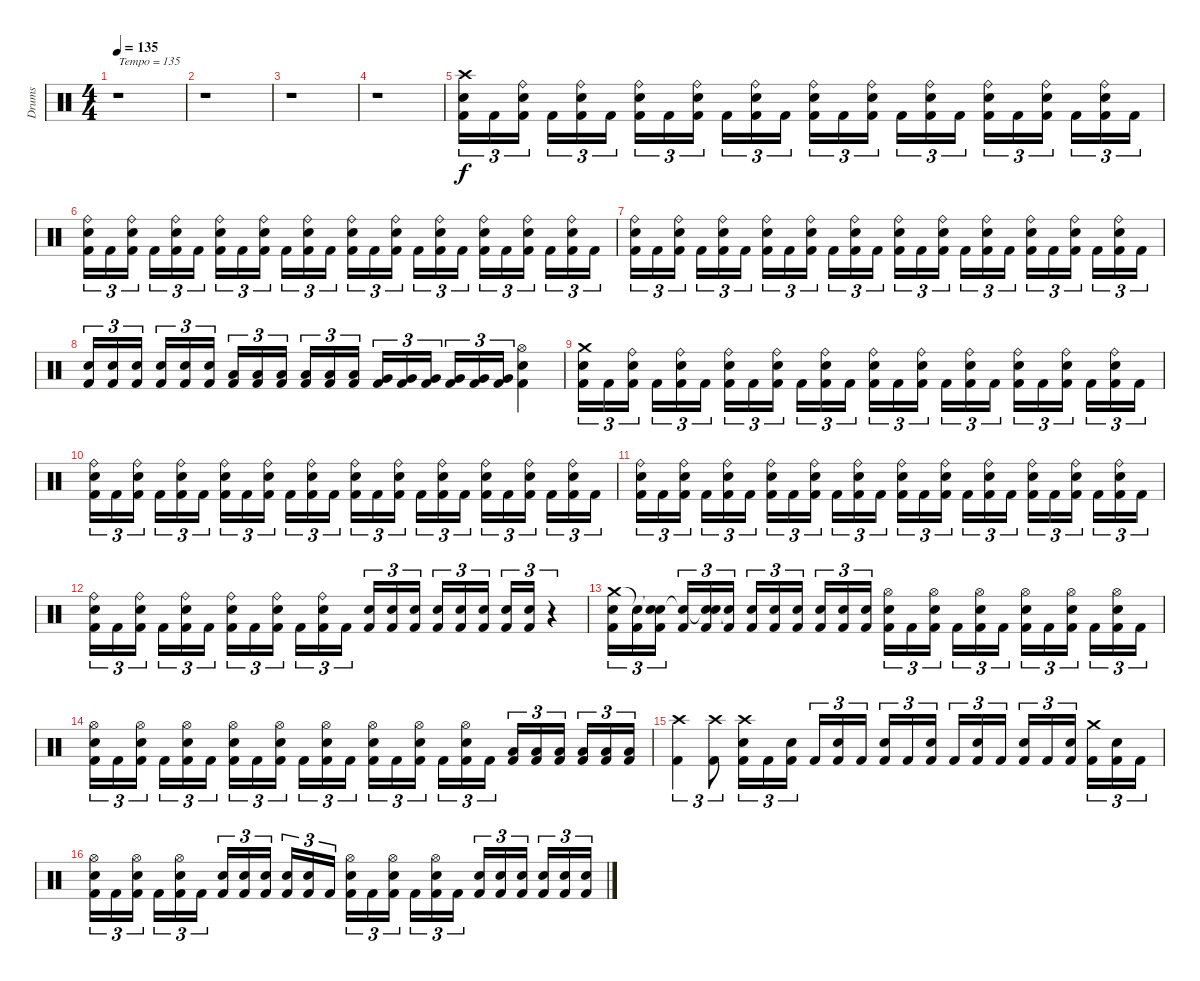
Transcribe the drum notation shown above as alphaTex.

\track ("Drums" "Drums") {instrument percussion}
\staff {score}
\articulation defaults
\ts (4 4)
\tempo 135
\clef neutral
\ks c
r.1{txt "Tempo = 135" dy f} |
r.1 |
r.1 |
r.1 |
("Crash high (hit)" "Electric Snare (hit)" "Kick (hit) 2").16{tu (3 2)} "Kick (hit) 2".16{tu (3 2)} ("Ride (bell)" "Electric Snare (hit)" "Kick (hit) 2").16{tu (3 2)} "Kick (hit) 2".16{tu (3 2)} ("Ride (bell)" "Electric Snare (hit)" "Kick (hit) 2").16{tu (3 2)} "Kick (hit) 2".16{tu (3 2)} ("Ride (bell)" "Electric Snare (hit)" "Kick (hit) 2").16{tu (3 2)} "Kick (hit) 2".16{tu (3 2)} ("Ride (bell)" "Electric Snare (hit)" "Kick (hit) 2").16{tu (3 2)} "Kick (hit) 2".16{tu (3 2)} ("Ride (bell)" "Electric Snare (hit)" "Kick (hit) 2").16{tu (3 2)} "Kick (hit) 2".16{tu (3 2)} ("Ride (bell)" "Electric Snare (hit)" "Kick (hit) 2").16{tu (3 2)} "Kick (hit) 2".16{tu (3 2)} ("Ride (bell)" "Electric Snare (hit)" "Kick (hit) 2").16{tu (3 2)} "Kick (hit) 2".16{tu (3 2)} ("Ride (bell)" "Electric Snare (hit)" "Kick (hit) 2").16{tu (3 2)} "Kick (hit) 2".16{tu (3 2)} ("Ride (bell)" "Electric Snare (hit)" "Kick (hit) 2").16{tu (3 2)} "Kick (hit) 2".16{tu (3 2)} ("Ride (bell)" "Electric Snare (hit)" "Kick (hit) 2").16{tu (3 2)} "Kick (hit) 2".16{tu (3 2)} ("Ride (bell)" "Electric Snare (hit)" "Kick (hit) 2").16{tu (3 2)} "Kick (hit) 2".16{tu (3 2)} |
("Ride (bell)" "Electric Snare (hit)" "Kick (hit) 2").16{tu (3 2)} "Kick (hit) 2".16{tu (3 2)} ("Ride (bell)" "Electric Snare (hit)" "Kick (hit) 2").16{tu (3 2)} "Kick (hit) 2".16{tu (3 2)} ("Ride (bell)" "Electric Snare (hit)" "Kick (hit) 2").16{tu (3 2)} "Kick (hit) 2".16{tu (3 2)} ("Ride (bell)" "Electric Snare (hit)" "Kick (hit) 2").16{tu (3 2)} "Kick (hit) 2".16{tu (3 2)} ("Ride (bell)" "Electric Snare (hit)" "Kick (hit) 2").16{tu (3 2)} "Kick (hit) 2".16{tu (3 2)} ("Ride (bell)" "Electric Snare (hit)" "Kick (hit) 2").16{tu (3 2)} "Kick (hit) 2".16{tu (3 2)} ("Ride (bell)" "Electric Snare (hit)" "Kick (hit) 2").16{tu (3 2)} "Kick (hit) 2".16{tu (3 2)} ("Ride (bell)" "Electric Snare (hit)" "Kick (hit) 2").16{tu (3 2)} "Kick (hit) 2".16{tu (3 2)} ("Ride (bell)" "Electric Snare (hit)" "Kick (hit) 2").16{tu (3 2)} "Kick (hit) 2".16{tu (3 2)} ("Ride (bell)" "Electric Snare (hit)" "Kick (hit) 2").16{tu (3 2)} "Kick (hit) 2".16{tu (3 2)} ("Ride (bell)" "Electric Snare (hit)" "Kick (hit) 2").16{tu (3 2)} "Kick (hit) 2".16{tu (3 2)} ("Ride (bell)" "Electric Snare (hit)" "Kick (hit) 2").16{tu (3 2)} "Kick (hit) 2".16{tu (3 2)} |
("Ride (bell)" "Electric Snare (hit)" "Kick (hit) 2").16{tu (3 2)} "Kick (hit) 2".16{tu (3 2)} ("Ride (bell)" "Electric Snare (hit)" "Kick (hit) 2").16{tu (3 2)} "Kick (hit) 2".16{tu (3 2)} ("Ride (bell)" "Electric Snare (hit)" "Kick (hit) 2").16{tu (3 2)} "Kick (hit) 2".16{tu (3 2)} ("Ride (bell)" "Electric Snare (hit)" "Kick (hit) 2").16{tu (3 2)} "Kick (hit) 2".16{tu (3 2)} ("Ride (bell)" "Electric Snare (hit)" "Kick (hit) 2").16{tu (3 2)} "Kick (hit) 2".16{tu (3 2)} ("Ride (bell)" "Electric Snare (hit)" "Kick (hit) 2").16{tu (3 2)} "Kick (hit) 2".16{tu (3 2)} ("Ride (bell)" "Electric Snare (hit)" "Kick (hit) 2").16{tu (3 2)} "Kick (hit) 2".16{tu (3 2)} ("Ride (bell)" "Electric Snare (hit)" "Kick (hit) 2").16{tu (3 2)} "Kick (hit) 2".16{tu (3 2)} ("Ride (bell)" "Electric Snare (hit)" "Kick (hit) 2").16{tu (3 2)} "Kick (hit) 2".16{tu (3 2)} ("Ride (bell)" "Electric Snare (hit)" "Kick (hit) 2").16{tu (3 2)} "Kick (hit) 2".16{tu (3 2)} ("Ride (bell)" "Electric Snare (hit)" "Kick (hit) 2").16{tu (3 2)} "Kick (hit) 2".16{tu (3 2)} ("Ride (bell)" "Electric Snare (hit)" "Kick (hit) 2").16{tu (3 2)} "Kick (hit) 2".16{tu (3 2)} |
("Electric Snare (hit)" "Kick (hit) 2").16{tu (3 2)} ("Electric Snare (hit)" "Kick (hit) 2").16{tu (3 2)} ("Electric Snare (hit)" "Kick (hit) 2").16{tu (3 2)} ("Electric Snare (hit)" "Kick (hit) 2").16{tu (3 2)} ("Electric Snare (hit)" "Kick (hit) 2").16{tu (3 2)} ("Electric Snare (hit)" "Kick (hit) 2").16{tu (3 2)} ("Low Floor Tom (hit)" "Kick (hit) 2").16{tu (3 2)} ("Low Floor Tom (hit)" "Kick (hit) 2").16{tu (3 2)} ("Low Floor Tom (hit)" "Kick (hit) 2").16{tu (3 2)} ("Low Floor Tom (hit)" "Kick (hit) 2").16{tu (3 2)} ("Low Floor Tom (hit)" "Kick (hit) 2").16{tu (3 2)} ("Low Floor Tom (hit)" "Kick (hit) 2").16{tu (3 2)} ("Very Low Tom (hit)" "Kick (hit) 2").16{tu (3 2)} ("Very Low Tom (hit)" "Kick (hit) 2").16{tu (3 2)} ("Very Low Tom (hit)" "Kick (hit) 2").16{tu (3 2)} ("Very Low Tom (hit)" "Kick (hit) 2").16{tu (3 2)} ("Very Low Tom (hit)" "Kick (hit) 2").16{tu (3 2)} ("Very Low Tom (hit)" "Kick (hit) 2").16{tu (3 2)} ("Hi-Hat (open)" "Electric Snare (hit)" "Kick (hit) 2").4 |
("Crash medium (hit)" "Electric Snare (hit)" "Kick (hit) 2").16{tu (3 2)} "Kick (hit) 2".16{tu (3 2)} ("Ride (bell)" "Electric Snare (hit)" "Kick (hit) 2").16{tu (3 2)} "Kick (hit) 2".16{tu (3 2)} ("Ride (bell)" "Electric Snare (hit)" "Kick (hit) 2").16{tu (3 2)} "Kick (hit) 2".16{tu (3 2)} ("Ride (bell)" "Electric Snare (hit)" "Kick (hit) 2").16{tu (3 2)} "Kick (hit) 2".16{tu (3 2)} ("Ride (bell)" "Electric Snare (hit)" "Kick (hit) 2").16{tu (3 2)} "Kick (hit) 2".16{tu (3 2)} ("Ride (bell)" "Electric Snare (hit)" "Kick (hit) 2").16{tu (3 2)} "Kick (hit) 2".16{tu (3 2)} ("Ride (bell)" "Electric Snare (hit)" "Kick (hit) 2").16{tu (3 2)} "Kick (hit) 2".16{tu (3 2)} ("Ride (bell)" "Electric Snare (hit)" "Kick (hit) 2").16{tu (3 2)} "Kick (hit) 2".16{tu (3 2)} ("Ride (bell)" "Electric Snare (hit)" "Kick (hit) 2").16{tu (3 2)} "Kick (hit) 2".16{tu (3 2)} ("Ride (bell)" "Electric Snare (hit)" "Kick (hit) 2").16{tu (3 2)} "Kick (hit) 2".16{tu (3 2)} ("Ride (bell)" "Electric Snare (hit)" "Kick (hit) 2").16{tu (3 2)} "Kick (hit) 2".16{tu (3 2)} ("Ride (bell)" "Electric Snare (hit)" "Kick (hit) 2").16{tu (3 2)} "Kick (hit) 2".16{tu (3 2)} |
("Ride (bell)" "Electric Snare (hit)" "Kick (hit) 2").16{tu (3 2)} "Kick (hit) 2".16{tu (3 2)} ("Ride (bell)" "Electric Snare (hit)" "Kick (hit) 2").16{tu (3 2)} "Kick (hit) 2".16{tu (3 2)} ("Ride (bell)" "Electric Snare (hit)" "Kick (hit) 2").16{tu (3 2)} "Kick (hit) 2".16{tu (3 2)} ("Ride (bell)" "Electric Snare (hit)" "Kick (hit) 2").16{tu (3 2)} "Kick (hit) 2".16{tu (3 2)} ("Ride (bell)" "Electric Snare (hit)" "Kick (hit) 2").16{tu (3 2)} "Kick (hit) 2".16{tu (3 2)} ("Ride (bell)" "Electric Snare (hit)" "Kick (hit) 2").16{tu (3 2)} "Kick (hit) 2".16{tu (3 2)} ("Ride (bell)" "Electric Snare (hit)" "Kick (hit) 2").16{tu (3 2)} "Kick (hit) 2".16{tu (3 2)} ("Ride (bell)" "Electric Snare (hit)" "Kick (hit) 2").16{tu (3 2)} "Kick (hit) 2".16{tu (3 2)} ("Ride (bell)" "Electric Snare (hit)" "Kick (hit) 2").16{tu (3 2)} "Kick (hit) 2".16{tu (3 2)} ("Ride (bell)" "Electric Snare (hit)" "Kick (hit) 2").16{tu (3 2)} "Kick (hit) 2".16{tu (3 2)} ("Ride (bell)" "Electric Snare (hit)" "Kick (hit) 2").16{tu (3 2)} "Kick (hit) 2".16{tu (3 2)} ("Ride (bell)" "Electric Snare (hit)" "Kick (hit) 2").16{tu (3 2)} "Kick (hit) 2".16{tu (3 2)} |
("Ride (bell)" "Electric Snare (hit)" "Kick (hit) 2").16{tu (3 2)} "Kick (hit) 2".16{tu (3 2)} ("Ride (bell)" "Electric Snare (hit)" "Kick (hit) 2").16{tu (3 2)} "Kick (hit) 2".16{tu (3 2)} ("Ride (bell)" "Electric Snare (hit)" "Kick (hit) 2").16{tu (3 2)} "Kick (hit) 2".16{tu (3 2)} ("Ride (bell)" "Electric Snare (hit)" "Kick (hit) 2").16{tu (3 2)} "Kick (hit) 2".16{tu (3 2)} ("Ride (bell)" "Electric Snare (hit)" "Kick (hit) 2").16{tu (3 2)} "Kick (hit) 2".16{tu (3 2)} ("Ride (bell)" "Electric Snare (hit)" "Kick (hit) 2").16{tu (3 2)} "Kick (hit) 2".16{tu (3 2)} ("Ride (bell)" "Electric Snare (hit)" "Kick (hit) 2").16{tu (3 2)} "Kick (hit) 2".16{tu (3 2)} ("Ride (bell)" "Electric Snare (hit)" "Kick (hit) 2").16{tu (3 2)} "Kick (hit) 2".16{tu (3 2)} ("Ride (bell)" "Electric Snare (hit)" "Kick (hit) 2").16{tu (3 2)} "Kick (hit) 2".16{tu (3 2)} ("Ride (bell)" "Electric Snare (hit)" "Kick (hit) 2").16{tu (3 2)} "Kick (hit) 2".16{tu (3 2)} ("Ride (bell)" "Electric Snare (hit)" "Kick (hit) 2").16{tu (3 2)} "Kick (hit) 2".16{tu (3 2)} ("Ride (bell)" "Electric Snare (hit)" "Kick (hit) 2").16{tu (3 2)} "Kick (hit) 2".16{tu (3 2)} |
("Ride (bell)" "Electric Snare (hit)" "Kick (hit) 2").16{tu (3 2)} "Kick (hit) 2".16{tu (3 2)} ("Ride (bell)" "Electric Snare (hit)" "Kick (hit) 2").16{tu (3 2)} "Kick (hit) 2".16{tu (3 2)} ("Ride (bell)" "Electric Snare (hit)" "Kick (hit) 2").16{tu (3 2)} "Kick (hit) 2".16{tu (3 2)} ("Ride (bell)" "Electric Snare (hit)" "Kick (hit) 2").16{tu (3 2)} "Kick (hit) 2".16{tu (3 2)} ("Ride (bell)" "Electric Snare (hit)" "Kick (hit) 2").16{tu (3 2)} "Kick (hit) 2".16{tu (3 2)} ("Ride (bell)" "Electric Snare (hit)" "Kick (hit) 2").16{tu (3 2)} "Kick (hit) 2".16{tu (3 2)} ("Electric Snare (hit)" "Kick (hit) 2").16{tu (3 2)} ("Electric Snare (hit)" "Kick (hit) 2").16{tu (3 2)} ("Electric Snare (hit)" "Kick (hit) 2").16{tu (3 2)} ("Electric Snare (hit)" "Kick (hit) 2").16{tu (3 2)} ("Electric Snare (hit)" "Kick (hit) 2").16{tu (3 2)} ("Electric Snare (hit)" "Kick (hit) 2").16{tu (3 2)} ("Electric Snare (hit)" "Kick (hit) 2").16{tu (3 2)} ("Electric Snare (hit)" "Kick (hit) 2").16{tu (3 2)} r.4{tu (3 2)} |
("Crash medium (hit)" "Electric Snare (hit)" "Kick (hit) 2").16{tu (3 2)} ("Snare (hit)"{t} "Kick (hit) 2").16{tu (3 2)} ("Snare (hit)"{t} "Electric Snare (hit)" "Kick (hit) 2").16{tu (3 2)} ("Snare (hit)"{t} "Kick (hit) 2").16{tu (3 2)} ("Snare (hit)"{t} "Electric Snare (hit)" "Kick (hit) 2").16{tu (3 2)} ("Snare (hit)"{t} "Kick (hit) 2").16{tu (3 2)} ("Electric Snare (hit)" "Kick (hit) 2").16{tu (3 2)} ("Electric Snare (hit)" "Kick (hit) 2").16{tu (3 2)} ("Electric Snare (hit)" "Kick (hit) 2").16{tu (3 2)} ("Electric Snare (hit)" "Kick (hit) 2").16{tu (3 2)} ("Electric Snare (hit)" "Kick (hit) 2").16{tu (3 2)} ("Electric Snare (hit)" "Kick (hit) 2").16{tu (3 2)} ("Hi-Hat (open)" "Electric Snare (hit)" "Kick (hit) 2").16{tu (3 2)} "Kick (hit) 2".16{tu (3 2)} ("Hi-Hat (open)" "Electric Snare (hit)" "Kick (hit) 2").16{tu (3 2)} "Kick (hit) 2".16{tu (3 2)} ("Hi-Hat (open)" "Electric Snare (hit)" "Kick (hit) 2").16{tu (3 2)} "Kick (hit) 2".16{tu (3 2)} ("Hi-Hat (open)" "Electric Snare (hit)" "Kick (hit) 2").16{tu (3 2)} "Kick (hit) 2".16{tu (3 2)} ("Hi-Hat (open)" "Electric Snare (hit)" "Kick (hit) 2").16{tu (3 2)} "Kick (hit) 2".16{tu (3 2)} ("Hi-Hat (open)" "Electric Snare (hit)" "Kick (hit) 2").16{tu (3 2)} "Kick (hit) 2".16{tu (3 2)} |
("Hi-Hat (open)" "Electric Snare (hit)" "Kick (hit) 2").16{tu (3 2)} "Kick (hit) 2".16{tu (3 2)} ("Hi-Hat (open)" "Electric Snare (hit)" "Kick (hit) 2").16{tu (3 2)} "Kick (hit) 2".16{tu (3 2)} ("Hi-Hat (open)" "Electric Snare (hit)" "Kick (hit) 2").16{tu (3 2)} "Kick (hit) 2".16{tu (3 2)} ("Hi-Hat (open)" "Electric Snare (hit)" "Kick (hit) 2").16{tu (3 2)} "Kick (hit) 2".16{tu (3 2)} ("Hi-Hat (open)" "Electric Snare (hit)" "Kick (hit) 2").16{tu (3 2)} "Kick (hit) 2".16{tu (3 2)} ("Hi-Hat (open)" "Electric Snare (hit)" "Kick (hit) 2").16{tu (3 2)} "Kick (hit) 2".16{tu (3 2)} ("Hi-Hat (open)" "Electric Snare (hit)" "Kick (hit) 2").16{tu (3 2)} "Kick (hit) 2".16{tu (3 2)} ("Hi-Hat (open)" "Electric Snare (hit)" "Kick (hit) 2").16{tu (3 2)} "Kick (hit) 2".16{tu (3 2)} ("Hi-Hat (open)" "Electric Snare (hit)" "Kick (hit) 2").16{tu (3 2)} "Kick (hit) 2".16{tu (3 2)} ("Low Floor Tom (hit)" "Kick (hit) 2").16{tu (3 2)} ("Low Floor Tom (hit)" "Kick (hit) 2").16{tu (3 2)} ("Low Floor Tom (hit)" "Kick (hit) 2").16{tu (3 2)} ("Low Floor Tom (hit)" "Kick (hit) 2").16{tu (3 2)} ("Low Floor Tom (hit)" "Kick (hit) 2").16{tu (3 2)} ("Low Floor Tom (hit)" "Kick (hit) 2").16{tu (3 2)} |
("Crash high (hit)" "Kick (hit) 2").4{tu (3 2)} ("Crash high (hit)" "Kick (hit) 2").8{tu (3 2)} ("Crash high (hit)" "Electric Snare (hit)" "Kick (hit) 2").16{tu (3 2)} "Kick (hit) 2".16{tu (3 2)} ("Electric Snare (hit)" "Kick (hit) 2").16{tu (3 2)} "Kick (hit) 2".16{tu (3 2)} ("Electric Snare (hit)" "Kick (hit) 2").16{tu (3 2)} "Kick (hit) 2".16{tu (3 2)} ("Electric Snare (hit)" "Kick (hit) 2").16{tu (3 2)} "Kick (hit) 2".16{tu (3 2)} ("Electric Snare (hit)" "Kick (hit) 2").16{tu (3 2)} "Kick (hit) 2".16{tu (3 2)} ("Electric Snare (hit)" "Kick (hit) 2").16{tu (3 2)} "Kick (hit) 2".16{tu (3 2)} ("Electric Snare (hit)" "Kick (hit) 2").16{tu (3 2)} "Kick (hit) 2".16{tu (3 2)} ("Electric Snare (hit)" "Kick (hit) 2").16{tu (3 2)} ("Crash medium (hit)" "Kick (hit) 2").16{tu (3 2)} ("Electric Snare (hit)" "Kick (hit) 2").16{tu (3 2)} "Kick (hit) 2".16{tu (3 2)} |
("Hi-Hat (open)" "Electric Snare (hit)" "Kick (hit) 2").16{tu (3 2)} "Kick (hit) 2".16{tu (3 2)} ("Hi-Hat (open)" "Electric Snare (hit)" "Kick (hit) 2").16{tu (3 2)} "Kick (hit) 2".16{tu (3 2)} ("Hi-Hat (open)" "Electric Snare (hit)" "Kick (hit) 2").16{tu (3 2)} "Kick (hit) 2".16{tu (3 2)} ("Electric Snare (hit)" "Kick (hit) 2").16{tu (3 2)} ("Electric Snare (hit)" "Kick (hit) 2").16{tu (3 2)} ("Electric Snare (hit)" "Kick (hit) 2").16{tu (3 2)} ("Electric Snare (hit)" "Kick (hit) 2").16{tu (3 2)} ("Electric Snare (hit)" "Kick (hit) 2").16{tu (3 2)} "Kick (hit) 2".16{tu (3 2)} ("Hi-Hat (open)" "Electric Snare (hit)" "Kick (hit) 2").16{tu (3 2)} "Kick (hit) 2".16{tu (3 2)} ("Hi-Hat (open)" "Electric Snare (hit)" "Kick (hit) 2").16{tu (3 2)} "Kick (hit) 2".16{tu (3 2)} ("Hi-Hat (open)" "Electric Snare (hit)" "Kick (hit) 2").16{tu (3 2)} "Kick (hit) 2".16{tu (3 2)} ("Electric Snare (hit)" "Kick (hit) 2").16{tu (3 2)} ("Electric Snare (hit)" "Kick (hit) 2").16{tu (3 2)} ("Electric Snare (hit)" "Kick (hit) 2").16{tu (3 2)} ("Electric Snare (hit)" "Kick (hit) 2").16{tu (3 2)} ("Electric Snare (hit)" "Kick (hit) 2").16{tu (3 2)} ("Electric Snare (hit)" "Kick (hit) 2").16{tu (3 2)}
